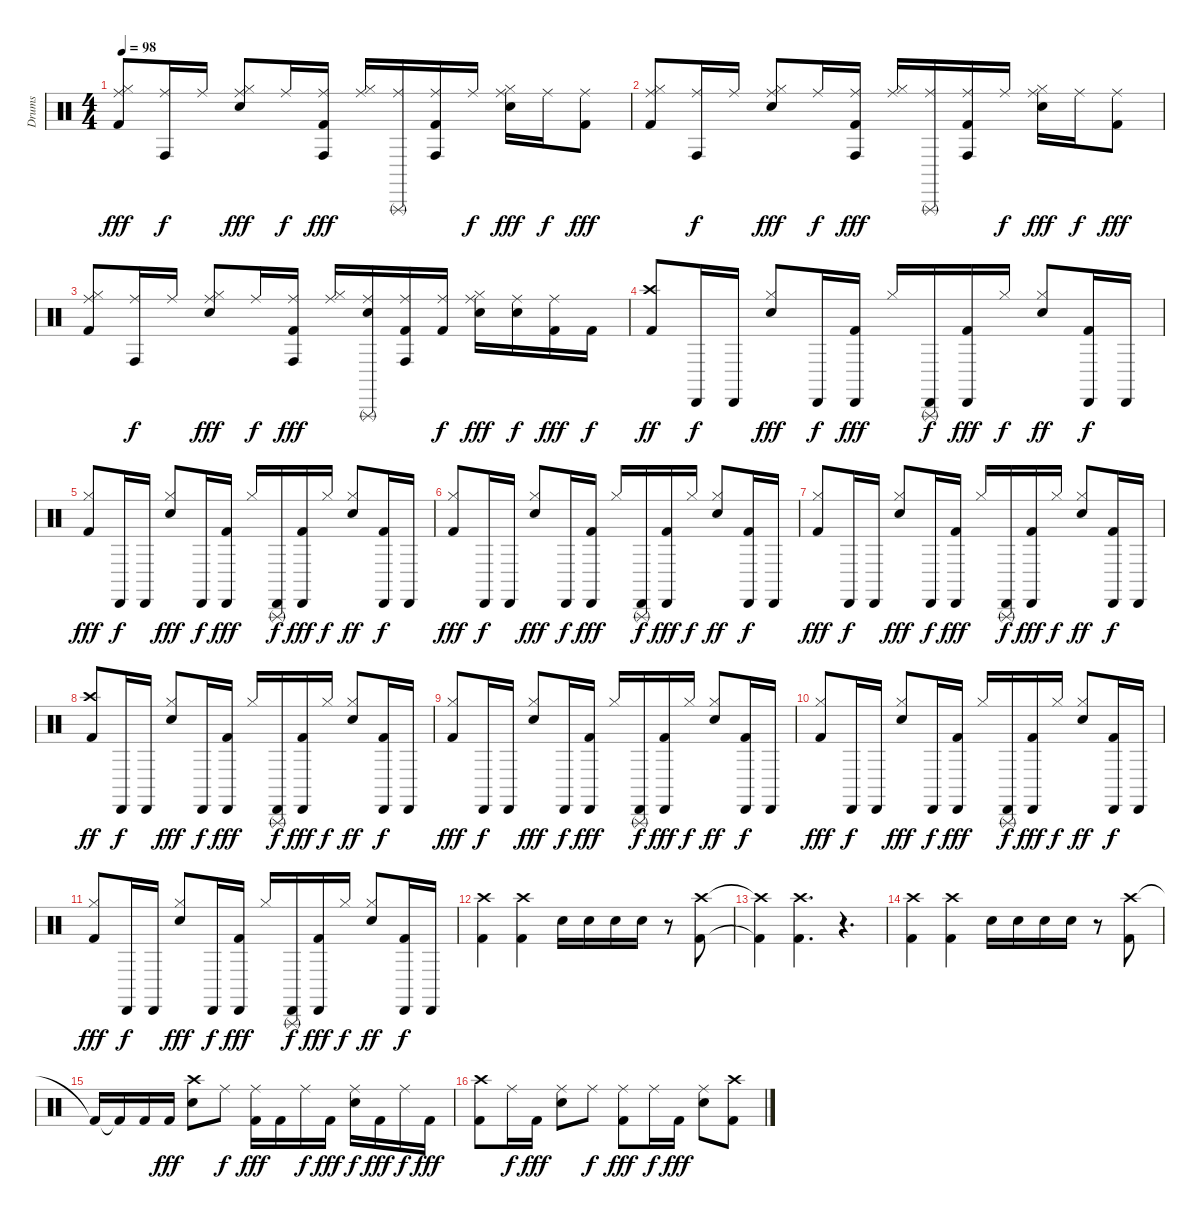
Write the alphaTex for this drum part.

\track ("Drums" "Drums") {instrument percussion}
\staff {score}
\articulation defaults
\ts (4 4)
\tempo 98
\clef neutral
\ks c
("Kick (hit) 2" "Hi-Hat (closed)" "Ride (middle)").8{dy fff} ("Conga high (hit)" "Ride (middle)").16{dy f} "Ride (middle)".16 ("Snare (hit) 2" "Hi-Hat (closed)" "Ride (middle)").8{dy fff} "Ride (middle)".16{dy f} ("Conga high (hit)" "Kick (hit) 2" "Ride (middle)").16{dy fff} ("Hi-Hat (closed)" "Ride (middle)").16 ("Triangle (rnute)" "Ride (middle)").16 ("Conga high (hit)" "Kick (hit) 2" "Ride (middle)").16 "Ride (middle)".16{dy f} ("Snare (hit) 2" "Hi-Hat (closed)" "Ride (middle)").16{dy fff} "Ride (middle)".16{dy f} ("Kick (hit) 2" "Ride (middle)").8{dy fff} |
("Kick (hit) 2" "Hi-Hat (closed)" "Ride (middle)").8 ("Conga high (hit)" "Ride (middle)").16{dy f} "Ride (middle)".16 ("Snare (hit) 2" "Hi-Hat (closed)" "Ride (middle)").8{dy fff} "Ride (middle)".16{dy f} ("Conga high (hit)" "Kick (hit) 2" "Ride (middle)").16{dy fff} ("Hi-Hat (closed)" "Ride (middle)").16 ("Triangle (rnute)" "Ride (middle)").16 ("Conga high (hit)" "Kick (hit) 2" "Ride (middle)").16 "Ride (middle)".16{dy f} ("Snare (hit) 2" "Hi-Hat (closed)" "Ride (middle)").16{dy fff} "Ride (middle)".16{dy f} ("Kick (hit) 2" "Ride (middle)").8{dy fff} |
("Kick (hit) 2" "Hi-Hat (closed)" "Ride (middle)").8 ("Conga high (hit)" "Ride (middle)").16{dy f} "Ride (middle)".16 ("Snare (hit) 2" "Hi-Hat (closed)" "Ride (middle)").8{dy fff} "Ride (middle)".16{dy f} ("Conga high (hit)" "Kick (hit) 2" "Ride (middle)").16{dy fff} ("Hi-Hat (closed)" "Ride (middle)").16 ("Triangle (rnute)" "Ride (middle)" "Snare (hit) 2").16 ("Conga high (hit)" "Kick (hit) 2" "Ride (middle)").16 ("Ride (middle)" "Kick (hit) 2").16{dy f} ("Snare (hit) 2" "Hi-Hat (closed)" "Ride (middle)").16{dy fff} ("Ride (middle)" "Snare (hit) 2").16{dy f} ("Kick (hit) 2" "Ride (middle)").16{dy fff} "Kick (hit) 2".16{dy f} |
("Kick (hit) 2" "Crash high (hit)").8{dy ff} "Cabasa (hit)".16{dy f} "Cabasa (hit)".16 ("Snare (hit) 2" "Hi-Hat (closed)").8{dy fff} "Cabasa (hit)".16{dy f} ("Kick (hit) 2" "Cabasa (hit)").16{dy fff} "Hi-Hat (closed)".16 ("Triangle (rnute)" "Cabasa (hit)").16{dy f} ("Kick (hit) 2" "Cabasa (hit)").16{dy fff} "Hi-Hat (closed)".16{dy f} ("Snare (hit) 2" "Hi-Hat (closed)").8{dy ff} ("Kick (hit) 2" "Cabasa (hit)").16{dy f} "Cabasa (hit)".16 |
("Kick (hit) 2" "Hi-Hat (closed)").8{dy fff} "Cabasa (hit)".16{dy f} "Cabasa (hit)".16 ("Snare (hit) 2" "Hi-Hat (closed)").8{dy fff} "Cabasa (hit)".16{dy f} ("Kick (hit) 2" "Cabasa (hit)").16{dy fff} "Hi-Hat (closed)".16 ("Triangle (rnute)" "Cabasa (hit)").16{dy f} ("Kick (hit) 2" "Cabasa (hit)").16{dy fff} "Hi-Hat (closed)".16{dy f} ("Snare (hit) 2" "Hi-Hat (closed)").8{dy ff} ("Kick (hit) 2" "Cabasa (hit)").16{dy f} "Cabasa (hit)".16 |
("Kick (hit) 2" "Hi-Hat (closed)").8{dy fff} "Cabasa (hit)".16{dy f} "Cabasa (hit)".16 ("Snare (hit) 2" "Hi-Hat (closed)").8{dy fff} "Cabasa (hit)".16{dy f} ("Kick (hit) 2" "Cabasa (hit)").16{dy fff} "Hi-Hat (closed)".16 ("Triangle (rnute)" "Cabasa (hit)").16{dy f} ("Kick (hit) 2" "Cabasa (hit)").16{dy fff} "Hi-Hat (closed)".16{dy f} ("Snare (hit) 2" "Hi-Hat (closed)").8{dy ff} ("Kick (hit) 2" "Cabasa (hit)").16{dy f} "Cabasa (hit)".16 |
("Kick (hit) 2" "Hi-Hat (closed)").8{dy fff} "Cabasa (hit)".16{dy f} "Cabasa (hit)".16 ("Snare (hit) 2" "Hi-Hat (closed)").8{dy fff} "Cabasa (hit)".16{dy f} ("Kick (hit) 2" "Cabasa (hit)").16{dy fff} "Hi-Hat (closed)".16 ("Triangle (rnute)" "Cabasa (hit)").16{dy f} ("Kick (hit) 2" "Cabasa (hit)").16{dy fff} "Hi-Hat (closed)".16{dy f} ("Snare (hit) 2" "Hi-Hat (closed)").8{dy ff} ("Kick (hit) 2" "Cabasa (hit)").16{dy f} "Cabasa (hit)".16 |
("Kick (hit) 2" "Crash high (hit)").8{dy ff} "Cabasa (hit)".16{dy f} "Cabasa (hit)".16 ("Snare (hit) 2" "Hi-Hat (closed)").8{dy fff} "Cabasa (hit)".16{dy f} ("Kick (hit) 2" "Cabasa (hit)").16{dy fff} "Hi-Hat (closed)".16 ("Triangle (rnute)" "Cabasa (hit)").16{dy f} ("Kick (hit) 2" "Cabasa (hit)").16{dy fff} "Hi-Hat (closed)".16{dy f} ("Snare (hit) 2" "Hi-Hat (closed)").8{dy ff} ("Kick (hit) 2" "Cabasa (hit)").16{dy f} "Cabasa (hit)".16 |
("Kick (hit) 2" "Hi-Hat (closed)").8{dy fff} "Cabasa (hit)".16{dy f} "Cabasa (hit)".16 ("Snare (hit) 2" "Hi-Hat (closed)").8{dy fff} "Cabasa (hit)".16{dy f} ("Kick (hit) 2" "Cabasa (hit)").16{dy fff} "Hi-Hat (closed)".16 ("Triangle (rnute)" "Cabasa (hit)").16{dy f} ("Kick (hit) 2" "Cabasa (hit)").16{dy fff} "Hi-Hat (closed)".16{dy f} ("Snare (hit) 2" "Hi-Hat (closed)").8{dy ff} ("Kick (hit) 2" "Cabasa (hit)").16{dy f} "Cabasa (hit)".16 |
("Kick (hit) 2" "Hi-Hat (closed)").8{dy fff} "Cabasa (hit)".16{dy f} "Cabasa (hit)".16 ("Snare (hit) 2" "Hi-Hat (closed)").8{dy fff} "Cabasa (hit)".16{dy f} ("Kick (hit) 2" "Cabasa (hit)").16{dy fff} "Hi-Hat (closed)".16 ("Triangle (rnute)" "Cabasa (hit)").16{dy f} ("Kick (hit) 2" "Cabasa (hit)").16{dy fff} "Hi-Hat (closed)".16{dy f} ("Snare (hit) 2" "Hi-Hat (closed)").8{dy ff} ("Kick (hit) 2" "Cabasa (hit)").16{dy f} "Cabasa (hit)".16 |
("Kick (hit) 2" "Hi-Hat (closed)").8{dy fff} "Cabasa (hit)".16{dy f} "Cabasa (hit)".16 ("Snare (hit) 2" "Hi-Hat (closed)").8{dy fff} "Cabasa (hit)".16{dy f} ("Kick (hit) 2" "Cabasa (hit)").16{dy fff} "Hi-Hat (closed)".16 ("Triangle (rnute)" "Cabasa (hit)").16{dy f} ("Kick (hit) 2" "Cabasa (hit)").16{dy fff} "Hi-Hat (closed)".16{dy f} ("Snare (hit) 2" "Hi-Hat (closed)").8{dy ff} ("Kick (hit) 2" "Cabasa (hit)").16{dy f} "Cabasa (hit)".16 |
("Crash high (hit)" "Kick (hit) 2").4 ("Crash high (hit)" "Kick (hit) 2").4 "Snare (hit) 2".16 "Snare (hit) 2".16 "Snare (hit) 2".16 "Snare (hit) 2".16 r.8 ("Crash high (hit)" "Kick (hit) 2").8 |
("Crash high (hit)"{t} "Kick (hit) 2"{t}).4 ("Crash high (hit)" "Kick (hit) 2").4{d} r.4{d} |
("Crash high (hit)" "Kick (hit) 2").4 ("Crash high (hit)" "Kick (hit) 2").4 "Snare (hit) 2".16 "Snare (hit) 2".16 "Snare (hit) 2".16 "Snare (hit) 2".16 r.8 ("Crash high (hit)" "Kick (hit) 2").8 |
"Kick (hit) 2"{t}.16 "Kick (hit) 2"{t}.16 "Kick (hit) 2".16 "Kick (hit) 2".16{dy fff} ("Snare (hit) 2" "Crash high (hit)").8 "Ride (middle)".8{dy f} ("Ride (middle)" "Kick (hit) 2").16{dy fff} "Kick (hit) 2".16 "Ride (middle)".16{dy f} "Kick (hit) 2".16{dy fff} ("Ride (middle)" "Snare (hit) 2").16{dy f} "Kick (hit) 2".16{dy fff} "Ride (middle)".16{dy f} "Kick (hit) 2".16{dy fff} |
("Crash high (hit)" "Kick (hit) 2").8 "Ride (middle)".16{dy f} "Kick (hit) 2".16{dy fff} ("Ride (middle)" "Snare (hit) 2").8 "Ride (middle)".8{dy f} ("Ride (middle)" "Kick (hit) 2").8{dy fff} "Ride (middle)".16{dy f} "Kick (hit) 2".16{dy fff} ("Ride (middle)" "Snare (hit) 2").8 ("Crash high (hit)" "Kick (hit) 2").8
